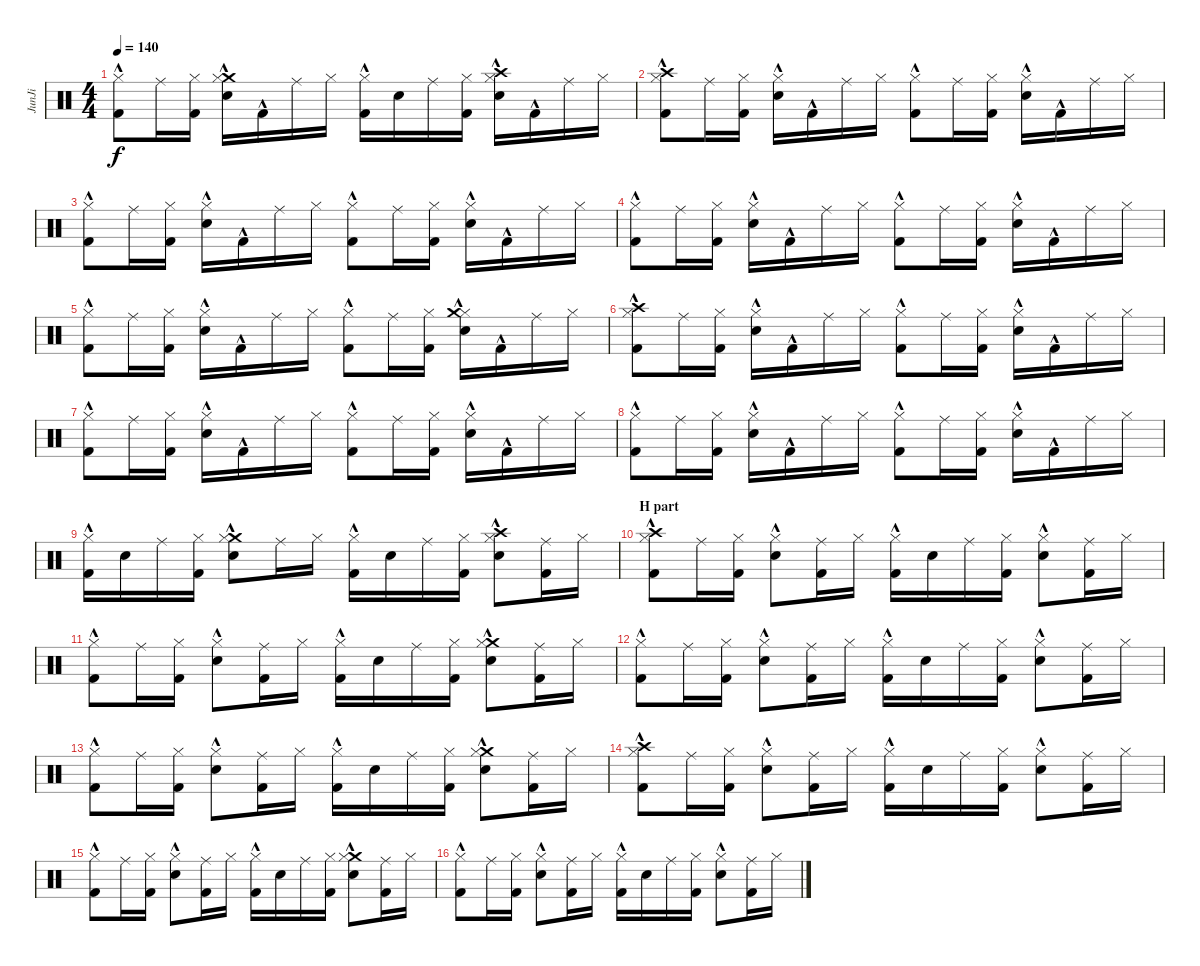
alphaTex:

\track ("JunJi" "JunJi") {instrument percussion}
\staff {score}
\articulation defaults
\ts (4 4)
\tempo 140
\clef neutral
\ks c
("Hi-Hat (closed)"{hac} "Kick (hit) 2"{hac}).8{dy f} "Ride (middle)".16 ("Hi-Hat (closed)" "Kick (hit) 2").16 ("Crash medium (hit)" "Electric Snare (hit)" "Hi-Hat (closed)"{hac}).16 "Kick (hit) 2"{hac}.16 "Ride (middle)".16 "Hi-Hat (closed)".16 ("Kick (hit) 2" "Hi-Hat (closed)"{hac}).16 "Electric Snare (hit)".16 "Ride (middle)".16 ("Hi-Hat (closed)" "Kick (hit) 2").16 ("Hi-Hat (closed)"{hac} "Crash high (hit)" "Electric Snare (hit)").16 "Kick (hit) 2"{hac}.16 "Ride (middle)".16 "Hi-Hat (closed)".16 |
("Hi-Hat (closed)"{hac} "Crash high (hit)" "Kick (hit) 2"{hac}).8 "Ride (middle)".16 ("Hi-Hat (closed)" "Kick (hit) 2").16 ("Electric Snare (hit)" "Hi-Hat (closed)"{hac}).16 "Kick (hit) 2"{hac}.16 "Ride (middle)".16 "Hi-Hat (closed)".16 ("Kick (hit) 2"{hac} "Hi-Hat (closed)"{hac}).8 "Ride (middle)".16 ("Kick (hit) 2" "Hi-Hat (closed)").16 ("Electric Snare (hit)" "Hi-Hat (closed)"{hac}).16 "Kick (hit) 2"{hac}.16 "Ride (middle)".16 "Hi-Hat (closed)".16 |
("Kick (hit) 2"{hac} "Hi-Hat (closed)"{hac}).8 "Ride (middle)".16 ("Hi-Hat (closed)" "Kick (hit) 2").16 ("Hi-Hat (closed)"{hac} "Electric Snare (hit)").16 "Kick (hit) 2"{hac}.16 "Ride (middle)".16 "Hi-Hat (closed)".16 ("Hi-Hat (closed)"{hac} "Kick (hit) 2"{hac}).8 "Ride (middle)".16 ("Kick (hit) 2" "Hi-Hat (closed)").16 ("Hi-Hat (closed)"{hac} "Electric Snare (hit)").16 "Kick (hit) 2"{hac}.16 "Ride (middle)".16 "Hi-Hat (closed)".16 |
("Kick (hit) 2"{hac} "Hi-Hat (closed)"{hac}).8 "Ride (middle)".16 ("Hi-Hat (closed)" "Kick (hit) 2").16 ("Electric Snare (hit)" "Hi-Hat (closed)"{hac}).16 "Kick (hit) 2"{hac}.16 "Ride (middle)".16 "Hi-Hat (closed)".16 ("Kick (hit) 2"{hac} "Hi-Hat (closed)"{hac}).8 "Ride (middle)".16 ("Hi-Hat (closed)" "Kick (hit) 2").16 ("Electric Snare (hit)" "Hi-Hat (closed)"{hac}).16 "Kick (hit) 2"{hac}.16 "Ride (middle)".16 "Hi-Hat (closed)".16 |
("Hi-Hat (closed)"{hac} "Kick (hit) 2"{hac}).8 "Ride (middle)".16 ("Hi-Hat (closed)" "Kick (hit) 2").16 ("Electric Snare (hit)" "Hi-Hat (closed)"{hac}).16 "Kick (hit) 2"{hac}.16 "Ride (middle)".16 "Hi-Hat (closed)".16 ("Hi-Hat (closed)"{hac} "Kick (hit) 2"{hac}).8 "Ride (middle)".16 ("Hi-Hat (closed)" "Kick (hit) 2").16 ("Electric Snare (hit)" "Hi-Hat (closed)"{hac} "Crash medium (hit)").16 "Kick (hit) 2"{hac}.16 "Ride (middle)".16 "Hi-Hat (closed)".16 |
("Crash high (hit)" "Kick (hit) 2"{hac} "Hi-Hat (closed)"{hac}).8 "Ride (middle)".16 ("Kick (hit) 2" "Hi-Hat (closed)").16 ("Electric Snare (hit)" "Hi-Hat (closed)"{hac}).16 "Kick (hit) 2"{hac}.16 "Ride (middle)".16 "Hi-Hat (closed)".16 ("Hi-Hat (closed)"{hac} "Kick (hit) 2"{hac}).8 "Ride (middle)".16 ("Kick (hit) 2" "Hi-Hat (closed)").16 ("Hi-Hat (closed)"{hac} "Electric Snare (hit)").16 "Kick (hit) 2"{hac}.16 "Ride (middle)".16 "Hi-Hat (closed)".16 |
("Hi-Hat (closed)"{hac} "Kick (hit) 2"{hac}).8 "Ride (middle)".16 ("Hi-Hat (closed)" "Kick (hit) 2").16 ("Electric Snare (hit)" "Hi-Hat (closed)"{hac}).16 "Kick (hit) 2"{hac}.16 "Ride (middle)".16 "Hi-Hat (closed)".16 ("Kick (hit) 2"{hac} "Hi-Hat (closed)"{hac}).8 "Ride (middle)".16 ("Hi-Hat (closed)" "Kick (hit) 2").16 ("Electric Snare (hit)" "Hi-Hat (closed)"{hac}).16 "Kick (hit) 2"{hac}.16 "Ride (middle)".16 "Hi-Hat (closed)".16 |
("Kick (hit) 2"{hac} "Hi-Hat (closed)"{hac}).8 "Ride (middle)".16 ("Hi-Hat (closed)" "Kick (hit) 2").16 ("Hi-Hat (closed)"{hac} "Electric Snare (hit)").16 "Kick (hit) 2"{hac}.16 "Ride (middle)".16 "Hi-Hat (closed)".16 ("Kick (hit) 2"{hac} "Hi-Hat (closed)"{hac}).8 "Ride (middle)".16 ("Kick (hit) 2" "Hi-Hat (closed)").16 ("Electric Snare (hit)" "Hi-Hat (closed)"{hac}).16 "Kick (hit) 2"{hac}.16 "Ride (middle)".16 "Hi-Hat (closed)".16 |
("Hi-Hat (closed)"{hac} "Kick (hit) 2").16 "Electric Snare (hit)".16 "Ride (middle)".16 ("Kick (hit) 2" "Hi-Hat (closed)").16 ("Crash medium (hit)" "Electric Snare (hit)" "Hi-Hat (closed)"{hac}).8 "Ride (middle)".16 "Hi-Hat (closed)".16 ("Hi-Hat (closed)"{hac} "Kick (hit) 2").16 "Electric Snare (hit)".16 "Ride (middle)".16 ("Kick (hit) 2" "Hi-Hat (closed)").16 ("Crash high (hit)" "Electric Snare (hit)" "Hi-Hat (closed)"{hac}).8 ("Kick (hit) 2" "Ride (middle)").16 "Hi-Hat (closed)".16 |
\section ("" "H part")
("Hi-Hat (closed)"{hac} "Crash high (hit)" "Kick (hit) 2"{hac}).8 "Ride (middle)".16 ("Hi-Hat (closed)" "Kick (hit) 2").16 ("Electric Snare (hit)" "Hi-Hat (closed)"{hac}).8 ("Ride (middle)" "Kick (hit) 2").16 "Hi-Hat (closed)".16 ("Kick (hit) 2" "Hi-Hat (closed)"{hac}).16 "Electric Snare (hit)".16 "Ride (middle)".16 ("Kick (hit) 2" "Hi-Hat (closed)").16 ("Electric Snare (hit)" "Hi-Hat (closed)"{hac}).8 ("Ride (middle)" "Kick (hit) 2").16 "Hi-Hat (closed)".16 |
("Hi-Hat (closed)"{hac} "Kick (hit) 2"{hac}).8 "Ride (middle)".16 ("Kick (hit) 2" "Hi-Hat (closed)").16 ("Electric Snare (hit)" "Hi-Hat (closed)"{hac}).8 ("Kick (hit) 2" "Ride (middle)").16 "Hi-Hat (closed)".16 ("Hi-Hat (closed)"{hac} "Kick (hit) 2").16 "Electric Snare (hit)".16 "Ride (middle)".16 ("Kick (hit) 2" "Hi-Hat (closed)").16 ("Crash medium (hit)" "Hi-Hat (closed)"{hac} "Electric Snare (hit)").8 ("Kick (hit) 2" "Ride (middle)").16 "Hi-Hat (closed)".16 |
("Hi-Hat (closed)"{hac} "Kick (hit) 2"{hac}).8 "Ride (middle)".16 ("Hi-Hat (closed)" "Kick (hit) 2").16 ("Electric Snare (hit)" "Hi-Hat (closed)"{hac}).8 ("Ride (middle)" "Kick (hit) 2").16 "Hi-Hat (closed)".16 ("Kick (hit) 2" "Hi-Hat (closed)"{hac}).16 "Electric Snare (hit)".16 "Ride (middle)".16 ("Kick (hit) 2" "Hi-Hat (closed)").16 ("Electric Snare (hit)" "Hi-Hat (closed)"{hac}).8 ("Ride (middle)" "Kick (hit) 2").16 "Hi-Hat (closed)".16 |
("Hi-Hat (closed)"{hac} "Kick (hit) 2"{hac}).8 "Ride (middle)".16 ("Kick (hit) 2" "Hi-Hat (closed)").16 ("Electric Snare (hit)" "Hi-Hat (closed)"{hac}).8 ("Kick (hit) 2" "Ride (middle)").16 "Hi-Hat (closed)".16 ("Hi-Hat (closed)"{hac} "Kick (hit) 2").16 "Electric Snare (hit)".16 "Ride (middle)".16 ("Kick (hit) 2" "Hi-Hat (closed)").16 ("Crash medium (hit)" "Hi-Hat (closed)"{hac} "Electric Snare (hit)").8 ("Kick (hit) 2" "Ride (middle)").16 "Hi-Hat (closed)".16 |
("Hi-Hat (closed)"{hac} "Crash high (hit)" "Kick (hit) 2"{hac}).8 "Ride (middle)".16 ("Hi-Hat (closed)" "Kick (hit) 2").16 ("Electric Snare (hit)" "Hi-Hat (closed)"{hac}).8 ("Ride (middle)" "Kick (hit) 2").16 "Hi-Hat (closed)".16 ("Kick (hit) 2" "Hi-Hat (closed)"{hac}).16 "Electric Snare (hit)".16 "Ride (middle)".16 ("Kick (hit) 2" "Hi-Hat (closed)").16 ("Electric Snare (hit)" "Hi-Hat (closed)"{hac}).8 ("Ride (middle)" "Kick (hit) 2").16 "Hi-Hat (closed)".16 |
("Hi-Hat (closed)"{hac} "Kick (hit) 2"{hac}).8 "Ride (middle)".16 ("Kick (hit) 2" "Hi-Hat (closed)").16 ("Electric Snare (hit)" "Hi-Hat (closed)"{hac}).8 ("Kick (hit) 2" "Ride (middle)").16 "Hi-Hat (closed)".16 ("Hi-Hat (closed)"{hac} "Kick (hit) 2").16 "Electric Snare (hit)".16 "Ride (middle)".16 ("Kick (hit) 2" "Hi-Hat (closed)").16 ("Crash medium (hit)" "Hi-Hat (closed)"{hac} "Electric Snare (hit)").8 ("Kick (hit) 2" "Ride (middle)").16 "Hi-Hat (closed)".16 |
("Hi-Hat (closed)"{hac} "Kick (hit) 2"{hac}).8 "Ride (middle)".16 ("Kick (hit) 2" "Hi-Hat (closed)").16 ("Electric Snare (hit)" "Hi-Hat (closed)"{hac}).8 ("Kick (hit) 2" "Ride (middle)").16 "Hi-Hat (closed)".16 ("Hi-Hat (closed)"{hac} "Kick (hit) 2").16 "Electric Snare (hit)".16 "Ride (middle)".16 ("Kick (hit) 2" "Hi-Hat (closed)").16 ("Hi-Hat (closed)"{hac} "Electric Snare (hit)").8 ("Kick (hit) 2" "Ride (middle)").16 "Hi-Hat (closed)".16
